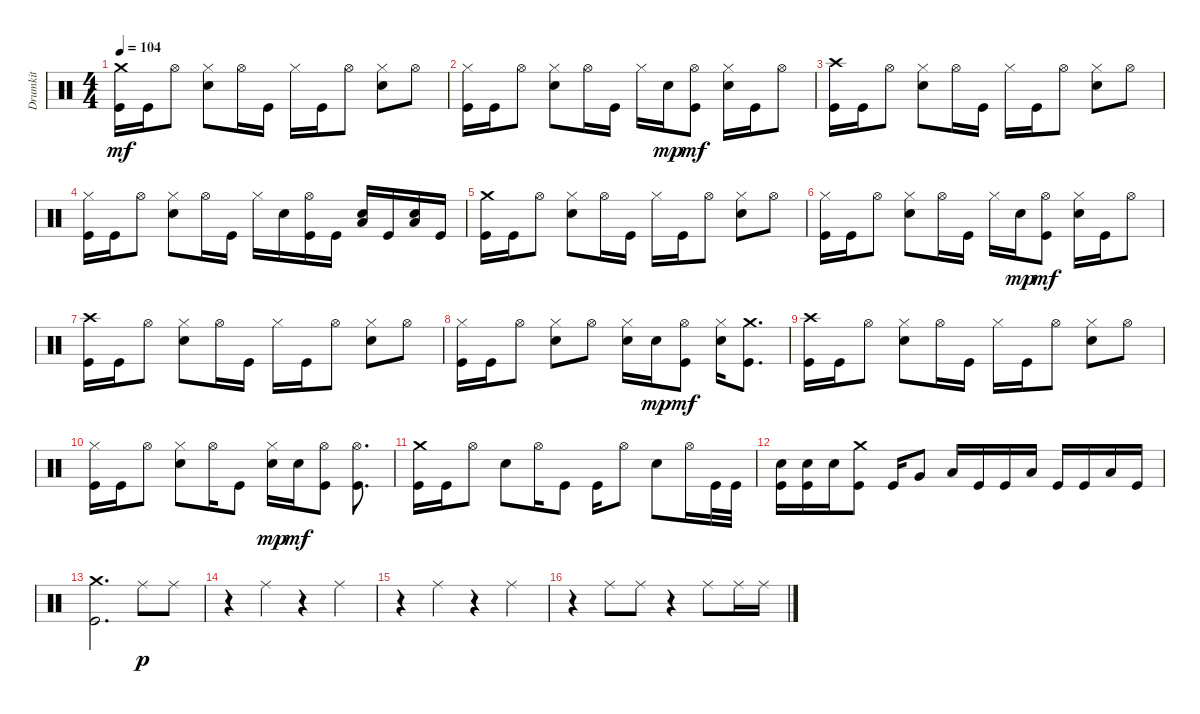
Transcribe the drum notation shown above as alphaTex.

\track ("Drumkit" "Drumkit") {instrument percussion}
\staff {score}
\articulation defaults
\ts (4 4)
\tempo 104
\clef neutral
\ks c
("Crash medium (hit)" "Kick (hit)").16{dy mf} "Kick (hit)".16 "Hi-Hat (open)".8 ("Snare (hit) 2" "Hi-Hat (closed)").8 "Hi-Hat (open)".16 "Kick (hit)".16 "Hi-Hat (closed)".16 "Kick (hit)".16 "Hi-Hat (open)".8 ("Snare (hit) 2" "Hi-Hat (closed)").8 "Hi-Hat (open)".8 |
("Kick (hit)" "Hi-Hat (closed)").16 "Kick (hit)".16 "Hi-Hat (open)".8 ("Snare (hit) 2" "Hi-Hat (closed)").8 "Hi-Hat (open)".16 "Kick (hit)".16 "Hi-Hat (closed)".16 "Snare (hit) 2".16{dy mp} ("Hi-Hat (open)" "Kick (hit)").8{dy mf} ("Snare (hit) 2" "Hi-Hat (closed)").16 "Kick (hit)".16 "Hi-Hat (open)".8 |
("Kick (hit)" "Crash high (hit)").16 "Kick (hit)".16 "Hi-Hat (open)".8 ("Snare (hit) 2" "Hi-Hat (closed)").8 "Hi-Hat (open)".16 "Kick (hit)".16 "Hi-Hat (closed)".16 "Kick (hit)".16 "Hi-Hat (open)".8 ("Snare (hit) 2" "Hi-Hat (closed)").8 "Hi-Hat (open)".8 |
("Kick (hit)" "Hi-Hat (closed)").16 "Kick (hit)".16 "Hi-Hat (open)".8 ("Snare (hit) 2" "Hi-Hat (closed)").8 "Hi-Hat (open)".16 "Kick (hit)".16 "Hi-Hat (closed)".16 "Snare (hit) 2".16 ("Hi-Hat (open)" "Kick (hit)").16 "Kick (hit)".16 ("Snare (hit) 2" "Low Tom (hit)").16 "Kick (hit)".16 ("Snare (hit) 2" "Low Tom (hit)").16 "Kick (hit)".16 |
("Crash medium (hit)" "Kick (hit)").16 "Kick (hit)".16 "Hi-Hat (open)".8 ("Snare (hit) 2" "Hi-Hat (closed)").8 "Hi-Hat (open)".16 "Kick (hit)".16 "Hi-Hat (closed)".16 "Kick (hit)".16 "Hi-Hat (open)".8 ("Snare (hit) 2" "Hi-Hat (closed)").8 "Hi-Hat (open)".8 |
("Kick (hit)" "Hi-Hat (closed)").16 "Kick (hit)".16 "Hi-Hat (open)".8 ("Snare (hit) 2" "Hi-Hat (closed)").8 "Hi-Hat (open)".16 "Kick (hit)".16 "Hi-Hat (closed)".16 "Snare (hit) 2".16{dy mp} ("Hi-Hat (open)" "Kick (hit)").8{dy mf} ("Snare (hit) 2" "Hi-Hat (closed)").16 "Kick (hit)".16 "Hi-Hat (open)".8 |
("Kick (hit)" "Crash high (hit)").16 "Kick (hit)".16 "Hi-Hat (open)".8 ("Snare (hit) 2" "Hi-Hat (closed)").8 "Hi-Hat (open)".16 "Kick (hit)".16 "Hi-Hat (closed)".16 "Kick (hit)".16 "Hi-Hat (open)".8 ("Snare (hit) 2" "Hi-Hat (closed)").8 "Hi-Hat (open)".8 |
("Kick (hit)" "Hi-Hat (closed)").16 "Kick (hit)".16 "Hi-Hat (open)".8 ("Snare (hit) 2" "Hi-Hat (closed)").8 "Hi-Hat (open)".8 ("Hi-Hat (closed)" "Snare (hit) 2").16 "Snare (hit) 2".16{dy mp} ("Hi-Hat (open)" "Kick (hit)").8{dy mf} ("Snare (hit) 2" "Hi-Hat (closed)").16 ("Kick (hit)" "Crash medium (hit)").8{d} |
("Kick (hit)" "Crash high (hit)").16 "Kick (hit)".16 "Hi-Hat (open)".8 ("Snare (hit) 2" "Hi-Hat (closed)").8 "Hi-Hat (open)".16 "Kick (hit)".16 "Hi-Hat (closed)".16 "Kick (hit)".16 "Hi-Hat (open)".8 ("Snare (hit) 2" "Hi-Hat (closed)").8 "Hi-Hat (open)".8 |
("Kick (hit)" "Hi-Hat (closed)").16 "Kick (hit)".16 "Hi-Hat (open)".8 ("Snare (hit) 2" "Hi-Hat (closed)").8 "Hi-Hat (open)".16 "Kick (hit)".8 ("Snare (hit) 2" "Hi-Hat (closed)").16{dy mp} "Snare (hit) 2".16{dy mf} ("Hi-Hat (open)" "Kick (hit)").8 ("Hi-Hat (open)" "Kick (hit)").8{d} |
("Crash medium (hit)" "Kick (hit)").16 "Kick (hit)".16 "Hi-Hat (open)".8 "Snare (hit) 2".8 "Hi-Hat (open)".16 "Kick (hit)".8 "Kick (hit)".16 "Hi-Hat (open)".8 "Snare (hit) 2".8 "Hi-Hat (open)".16 "Kick (hit)".32 "Kick (hit)".32 |
("Snare (hit) 2" "Kick (hit)").16 ("Snare (hit) 2" "Kick (hit)").16 "Snare (hit) 2".16 ("Crash medium (hit)" "Kick (hit)").8 "Kick (hit)".16 "Very Low Tom (hit)".8 "Low Tom (hit)".16 "Kick (hit)".16 "Kick (hit)".16 "Low Floor Tom (hit)".16 "Kick (hit)".16 "Kick (hit)".16 "Low Floor Tom (hit)".16 "Kick (hit)".16 |
("Kick (hit)" "Crash medium (hit)").2{d} "Ride (middle)".8{dy p} "Ride (middle)".8 |
r.4 "Ride (middle)".4 r.4 "Ride (middle)".4 |
r.4 "Ride (middle)".4 r.4 "Ride (middle)".4 |
r.4 "Ride (middle)".8 "Ride (middle)".8 r.4 "Ride (middle)".8 "Ride (middle)".16 "Ride (middle)".16
